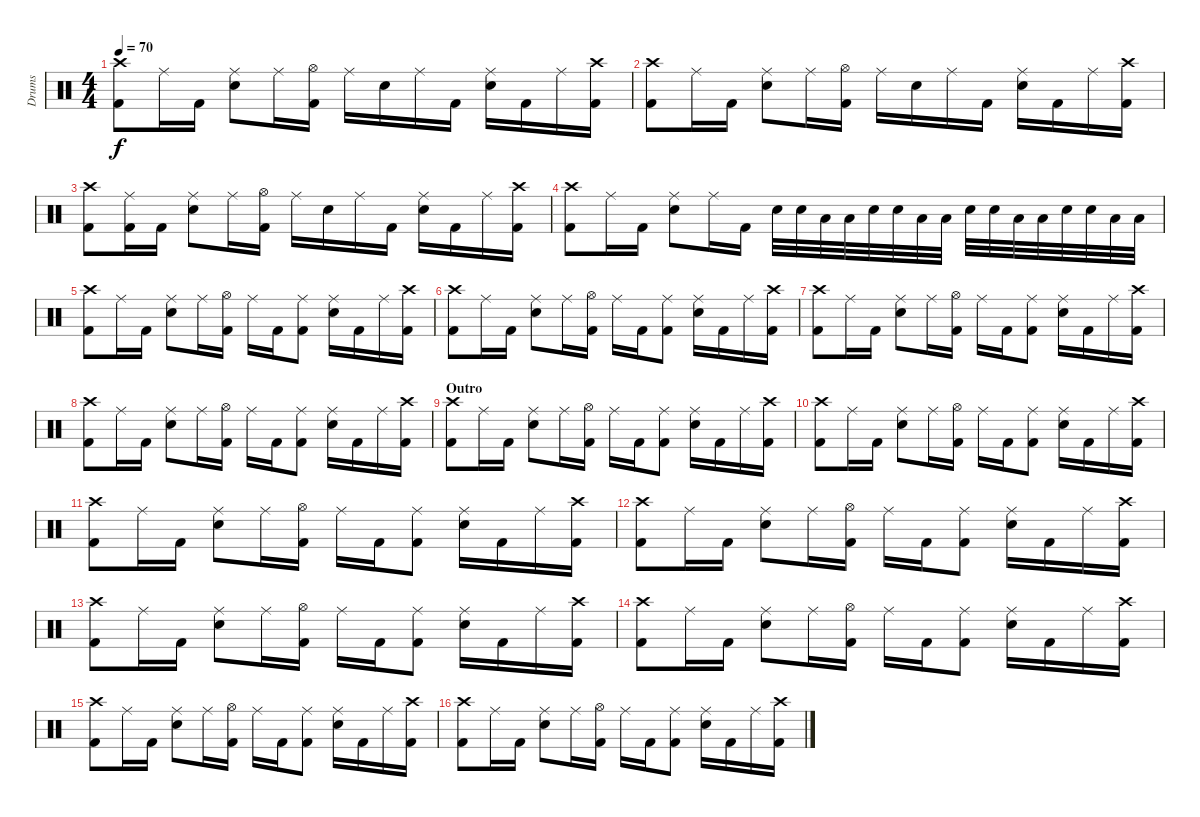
\track ("Drums" "Drums") {instrument percussion}
\staff {score}
\articulation defaults
\ts (4 4)
\tempo 70
\clef neutral
\ks c
("Crash high (hit)" "Kick (hit) 2").8{dy f} "Ride (middle)".16 "Kick (hit) 2".16 ("Ride (middle)" "Electric Snare (hit)").8 "Ride (middle)".16 ("Hi-Hat (open)" "Kick (hit) 2").16 "Ride (middle)".16 "Electric Snare (hit)".16 "Ride (middle)".16 "Kick (hit) 2".16 ("Ride (middle)" "Electric Snare (hit)").16 "Kick (hit) 2".16 "Ride (middle)".16 ("Crash high (hit)" "Kick (hit) 2").16 |
("Crash high (hit)" "Kick (hit) 2").8 "Ride (middle)".16 "Kick (hit) 2".16 ("Ride (middle)" "Electric Snare (hit)").8 "Ride (middle)".16 ("Hi-Hat (open)" "Kick (hit) 2").16 "Ride (middle)".16 "Electric Snare (hit)".16 "Ride (middle)".16 "Kick (hit) 2".16 ("Ride (middle)" "Electric Snare (hit)").16 "Kick (hit) 2".16 "Ride (middle)".16 ("Crash high (hit)" "Kick (hit) 2").16 |
("Crash high (hit)" "Kick (hit) 2").8 ("Ride (middle)" "Kick (hit) 2").16 "Kick (hit) 2".16 ("Ride (middle)" "Electric Snare (hit)").8 "Ride (middle)".16 ("Hi-Hat (open)" "Kick (hit) 2").16 "Ride (middle)".16 "Electric Snare (hit)".16 "Ride (middle)".16 "Kick (hit) 2".16 ("Ride (middle)" "Electric Snare (hit)").16 "Kick (hit) 2".16 "Ride (middle)".16 ("Crash high (hit)" "Kick (hit) 2").16 |
("Crash high (hit)" "Kick (hit) 2").8 "Ride (middle)".16 "Kick (hit) 2".16 ("Ride (middle)" "Electric Snare (hit)").8 "Ride (middle)".16 "Kick (hit) 2".16 "Electric Snare (hit)".32 "Electric Snare (hit)".32 "Low Tom (hit)".32 "Low Tom (hit)".32 "Electric Snare (hit)".32 "Electric Snare (hit)".32 "Low Tom (hit)".32 "Low Tom (hit)".32 "Electric Snare (hit)".32 "Electric Snare (hit)".32 "Low Tom (hit)".32 "Low Tom (hit)".32 "Electric Snare (hit)".32 "Electric Snare (hit)".32 "Low Tom (hit)".32 "Low Tom (hit)".32 |
("Crash high (hit)" "Kick (hit) 2").8 "Ride (middle)".16 "Kick (hit) 2".16 ("Ride (middle)" "Electric Snare (hit)").8 "Ride (middle)".16 ("Hi-Hat (open)" "Kick (hit) 2").16 "Ride (middle)".16 "Kick (hit) 2".16 ("Ride (middle)" "Kick (hit) 2").8 ("Ride (middle)" "Electric Snare (hit)").16 "Kick (hit) 2".16 "Ride (middle)".16 ("Crash high (hit)" "Kick (hit) 2").16 |
("Crash high (hit)" "Kick (hit) 2").8 "Ride (middle)".16 "Kick (hit) 2".16 ("Ride (middle)" "Electric Snare (hit)").8 "Ride (middle)".16 ("Hi-Hat (open)" "Kick (hit) 2").16 "Ride (middle)".16 "Kick (hit) 2".16 ("Ride (middle)" "Kick (hit) 2").8 ("Ride (middle)" "Electric Snare (hit)").16 "Kick (hit) 2".16 "Ride (middle)".16 ("Crash high (hit)" "Kick (hit) 2").16 |
("Crash high (hit)" "Kick (hit) 2").8 "Ride (middle)".16 "Kick (hit) 2".16 ("Ride (middle)" "Electric Snare (hit)").8 "Ride (middle)".16 ("Hi-Hat (open)" "Kick (hit) 2").16 "Ride (middle)".16 "Kick (hit) 2".16 ("Ride (middle)" "Kick (hit) 2").8 ("Ride (middle)" "Electric Snare (hit)").16 "Kick (hit) 2".16 "Ride (middle)".16 ("Crash high (hit)" "Kick (hit) 2").16 |
("Crash high (hit)" "Kick (hit) 2").8 "Ride (middle)".16 "Kick (hit) 2".16 ("Ride (middle)" "Electric Snare (hit)").8 "Ride (middle)".16 ("Hi-Hat (open)" "Kick (hit) 2").16 "Ride (middle)".16 "Kick (hit) 2".16 ("Ride (middle)" "Kick (hit) 2").8 ("Ride (middle)" "Electric Snare (hit)").16 "Kick (hit) 2".16 "Ride (middle)".16 ("Crash high (hit)" "Kick (hit) 2").16 |
\section ("" "Outro")
("Crash high (hit)" "Kick (hit) 2").8 "Ride (middle)".16 "Kick (hit) 2".16 ("Ride (middle)" "Electric Snare (hit)").8 "Ride (middle)".16 ("Hi-Hat (open)" "Kick (hit) 2").16 "Ride (middle)".16 "Kick (hit) 2".16 ("Ride (middle)" "Kick (hit) 2").8 ("Ride (middle)" "Electric Snare (hit)").16 "Kick (hit) 2".16 "Ride (middle)".16 ("Crash high (hit)" "Kick (hit) 2").16 |
("Crash high (hit)" "Kick (hit) 2").8 "Ride (middle)".16 "Kick (hit) 2".16 ("Ride (middle)" "Electric Snare (hit)").8 "Ride (middle)".16 ("Hi-Hat (open)" "Kick (hit) 2").16 "Ride (middle)".16 "Kick (hit) 2".16 ("Ride (middle)" "Kick (hit) 2").8 ("Ride (middle)" "Electric Snare (hit)").16 "Kick (hit) 2".16 "Ride (middle)".16 ("Crash high (hit)" "Kick (hit) 2").16 |
("Crash high (hit)" "Kick (hit) 2").8 "Ride (middle)".16 "Kick (hit) 2".16 ("Ride (middle)" "Electric Snare (hit)").8 "Ride (middle)".16 ("Hi-Hat (open)" "Kick (hit) 2").16 "Ride (middle)".16 "Kick (hit) 2".16 ("Ride (middle)" "Kick (hit) 2").8 ("Ride (middle)" "Electric Snare (hit)").16 "Kick (hit) 2".16 "Ride (middle)".16 ("Crash high (hit)" "Kick (hit) 2").16 |
("Crash high (hit)" "Kick (hit) 2").8 "Ride (middle)".16 "Kick (hit) 2".16 ("Ride (middle)" "Electric Snare (hit)").8 "Ride (middle)".16 ("Hi-Hat (open)" "Kick (hit) 2").16 "Ride (middle)".16 "Kick (hit) 2".16 ("Ride (middle)" "Kick (hit) 2").8 ("Ride (middle)" "Electric Snare (hit)").16 "Kick (hit) 2".16 "Ride (middle)".16 ("Crash high (hit)" "Kick (hit) 2").16 |
("Crash high (hit)" "Kick (hit) 2").8 "Ride (middle)".16 "Kick (hit) 2".16 ("Ride (middle)" "Electric Snare (hit)").8 "Ride (middle)".16 ("Hi-Hat (open)" "Kick (hit) 2").16 "Ride (middle)".16 "Kick (hit) 2".16 ("Ride (middle)" "Kick (hit) 2").8 ("Ride (middle)" "Electric Snare (hit)").16 "Kick (hit) 2".16 "Ride (middle)".16 ("Crash high (hit)" "Kick (hit) 2").16 |
("Crash high (hit)" "Kick (hit) 2").8 "Ride (middle)".16 "Kick (hit) 2".16 ("Ride (middle)" "Electric Snare (hit)").8 "Ride (middle)".16 ("Hi-Hat (open)" "Kick (hit) 2").16 "Ride (middle)".16 "Kick (hit) 2".16 ("Ride (middle)" "Kick (hit) 2").8 ("Ride (middle)" "Electric Snare (hit)").16 "Kick (hit) 2".16 "Ride (middle)".16 ("Crash high (hit)" "Kick (hit) 2").16 |
("Crash high (hit)" "Kick (hit) 2").8 "Ride (middle)".16 "Kick (hit) 2".16 ("Ride (middle)" "Electric Snare (hit)").8 "Ride (middle)".16 ("Hi-Hat (open)" "Kick (hit) 2").16 "Ride (middle)".16 "Kick (hit) 2".16 ("Ride (middle)" "Kick (hit) 2").8 ("Ride (middle)" "Electric Snare (hit)").16 "Kick (hit) 2".16 "Ride (middle)".16 ("Crash high (hit)" "Kick (hit) 2").16 |
("Crash high (hit)" "Kick (hit) 2").8 "Ride (middle)".16 "Kick (hit) 2".16 ("Ride (middle)" "Electric Snare (hit)").8 "Ride (middle)".16 ("Hi-Hat (open)" "Kick (hit) 2").16 "Ride (middle)".16 "Kick (hit) 2".16 ("Ride (middle)" "Kick (hit) 2").8 ("Ride (middle)" "Electric Snare (hit)").16 "Kick (hit) 2".16 "Ride (middle)".16 ("Crash high (hit)" "Kick (hit) 2").16
